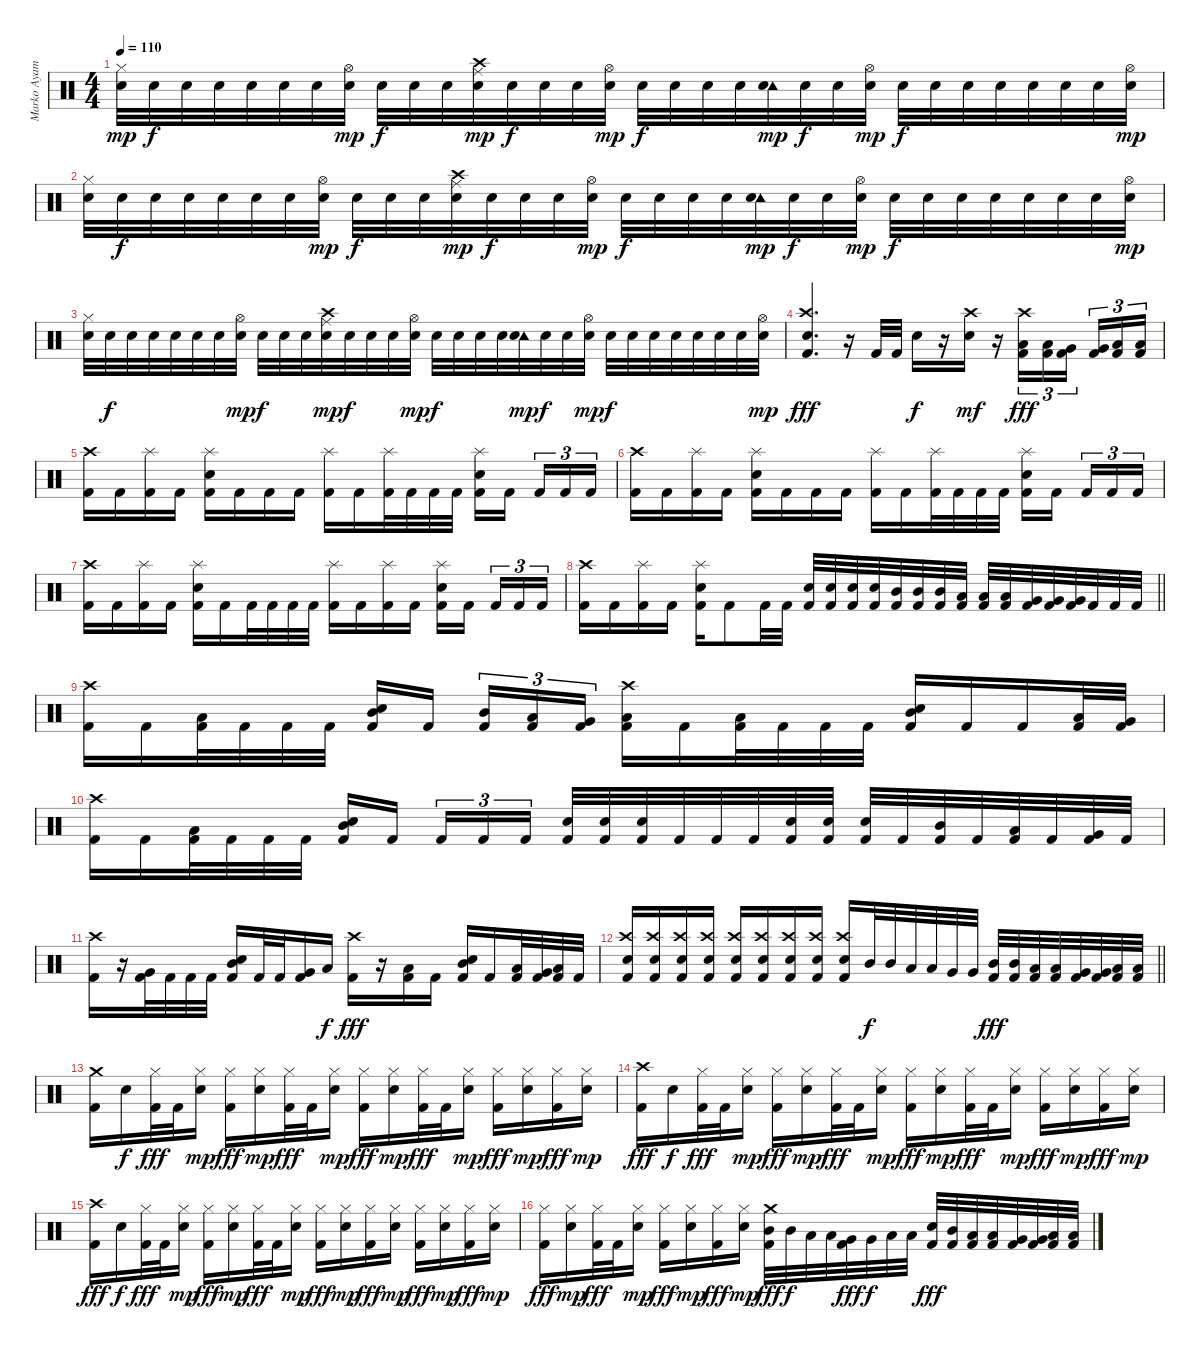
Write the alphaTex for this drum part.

\track ("Marko Ayamani" "Marko Ayam") {instrument percussion}
\staff {score}
\articulation defaults
\ts (4 4)
\tempo 110
\clef neutral
\ks c
("Hi-Hat (closed)" "Snare (hit) 2").32{dy mp} "Snare (hit) 2".32{dy f} "Snare (hit) 2".32 "Snare (hit) 2".32 "Snare (hit) 2".32 "Snare (hit) 2".32 "Snare (hit) 2".32 ("Hi-Hat (open)" "Snare (hit) 2").32{dy mp} "Snare (hit) 2".32{dy f} "Snare (hit) 2".32 "Snare (hit) 2".32 ("Ride (middle)" "Crash high (hit)" "Snare (hit) 2").32{dy mp} "Snare (hit) 2".32{dy f} "Snare (hit) 2".32 "Snare (hit) 2".32 ("Hi-Hat (open)" "Snare (hit) 2").32{dy mp} "Snare (hit) 2".32{dy f} "Snare (hit) 2".32 "Snare (hit) 2".32 "Snare (hit) 2".32 ("Tambourine (hit)" "Snare (hit) 2").32{dy mp} "Snare (hit) 2".32{dy f} "Snare (hit) 2".32 ("Hi-Hat (open)" "Snare (hit) 2").32{dy mp} "Snare (hit) 2".32{dy f} "Snare (hit) 2".32 "Snare (hit) 2".32 "Snare (hit) 2".32 "Snare (hit) 2".32 "Snare (hit) 2".32 "Snare (hit) 2".32 ("Hi-Hat (open)" "Snare (hit) 2").32{dy mp} |
("Hi-Hat (closed)" "Snare (hit) 2").32 "Snare (hit) 2".32{dy f} "Snare (hit) 2".32 "Snare (hit) 2".32 "Snare (hit) 2".32 "Snare (hit) 2".32 "Snare (hit) 2".32 ("Hi-Hat (open)" "Snare (hit) 2").32{dy mp} "Snare (hit) 2".32{dy f} "Snare (hit) 2".32 "Snare (hit) 2".32 ("Ride (middle)" "Crash high (hit)" "Snare (hit) 2").32{dy mp} "Snare (hit) 2".32{dy f} "Snare (hit) 2".32 "Snare (hit) 2".32 ("Hi-Hat (open)" "Snare (hit) 2").32{dy mp} "Snare (hit) 2".32{dy f} "Snare (hit) 2".32 "Snare (hit) 2".32 "Snare (hit) 2".32 ("Tambourine (hit)" "Snare (hit) 2").32{dy mp} "Snare (hit) 2".32{dy f} "Snare (hit) 2".32 ("Hi-Hat (open)" "Snare (hit) 2").32{dy mp} "Snare (hit) 2".32{dy f} "Snare (hit) 2".32 "Snare (hit) 2".32 "Snare (hit) 2".32 "Snare (hit) 2".32 "Snare (hit) 2".32 "Snare (hit) 2".32 ("Hi-Hat (open)" "Snare (hit) 2").32{dy mp} |
("Hi-Hat (closed)" "Snare (hit) 2").32 "Snare (hit) 2".32{dy f} "Snare (hit) 2".32 "Snare (hit) 2".32 "Snare (hit) 2".32 "Snare (hit) 2".32 "Snare (hit) 2".32 ("Hi-Hat (open)" "Snare (hit) 2").32{dy mp} "Snare (hit) 2".32{dy f} "Snare (hit) 2".32 "Snare (hit) 2".32 ("Ride (middle)" "Crash high (hit)" "Snare (hit) 2").32{dy mp} "Snare (hit) 2".32{dy f} "Snare (hit) 2".32 "Snare (hit) 2".32 ("Hi-Hat (open)" "Snare (hit) 2").32{dy mp} "Snare (hit) 2".32{dy f} "Snare (hit) 2".32 "Snare (hit) 2".32 "Snare (hit) 2".32 ("Tambourine (hit)" "Snare (hit) 2").32{dy mp} "Snare (hit) 2".32{dy f} "Snare (hit) 2".32 ("Hi-Hat (open)" "Snare (hit) 2").32{dy mp} "Snare (hit) 2".32{dy f} "Snare (hit) 2".32 "Snare (hit) 2".32 "Snare (hit) 2".32 "Snare (hit) 2".32 "Snare (hit) 2".32 "Snare (hit) 2".32 ("Hi-Hat (open)" "Snare (hit) 2").32{dy mp} |
("Crash high (hit)" "Snare (hit) 2" "Kick (hit) 2").4{d dy fff} r.16 "Kick (hit) 2".32 "Kick (hit) 2".32 "Snare (hit) 2".16{dy f} r.16 ("Crash high (hit)" "Snare (hit) 2").16{dy mf} r.16 ("Crash high (hit)" "Low Tom (hit)" "Kick (hit) 2").16{tu (3 2) dy fff} ("Low Tom (hit)" "Kick (hit) 2").16{tu (3 2)} ("Very Low Tom (hit)" "Kick (hit) 2").16{tu (3 2) beam splitsecondary} ("Very Low Tom (hit)" "Kick (hit) 2").16{tu (3 2)} ("Low Floor Tom (hit)" "Kick (hit) 2").16{tu (3 2)} ("Low Floor Tom (hit)" "Kick (hit) 2").16{tu (3 2)} |
("Crash high (hit)" "Kick (hit) 2").16 "Kick (hit) 2".16 ("Splash (hit)" "Kick (hit) 2").16 "Kick (hit) 2".16 ("Splash (hit)" "Snare (hit) 2" "Kick (hit) 2").16 "Kick (hit) 2".16 "Kick (hit) 2".16 "Kick (hit) 2".16 ("Splash (hit)" "Kick (hit) 2").16 "Kick (hit) 2".16 ("Splash (hit)" "Kick (hit) 2").32 "Kick (hit) 2".32 "Kick (hit) 2".32 "Kick (hit) 2".32 ("Splash (hit)" "Snare (hit) 2" "Kick (hit) 2").16 "Kick (hit) 2".16{beam splitsecondary} "Kick (hit) 2".16{tu (3 2)} "Kick (hit) 2".16{tu (3 2)} "Kick (hit) 2".16{tu (3 2)} |
("Crash high (hit)" "Kick (hit) 2").16 "Kick (hit) 2".16 ("Splash (hit)" "Kick (hit) 2").16 "Kick (hit) 2".16 ("Splash (hit)" "Snare (hit) 2" "Kick (hit) 2").16 "Kick (hit) 2".16 "Kick (hit) 2".16 "Kick (hit) 2".16 ("Splash (hit)" "Kick (hit) 2").16 "Kick (hit) 2".16 ("Splash (hit)" "Kick (hit) 2").32 "Kick (hit) 2".32 "Kick (hit) 2".32 "Kick (hit) 2".32 ("Splash (hit)" "Snare (hit) 2" "Kick (hit) 2").16 "Kick (hit) 2".16{beam splitsecondary} "Kick (hit) 2".16{tu (3 2)} "Kick (hit) 2".16{tu (3 2)} "Kick (hit) 2".16{tu (3 2)} |
("Crash high (hit)" "Kick (hit) 2").16 "Kick (hit) 2".16 ("Splash (hit)" "Kick (hit) 2").16 "Kick (hit) 2".16 ("Splash (hit)" "Snare (hit) 2" "Kick (hit) 2").16 "Kick (hit) 2".16 "Kick (hit) 2".32 "Kick (hit) 2".32 "Kick (hit) 2".32 "Kick (hit) 2".32 ("Splash (hit)" "Kick (hit) 2").16 "Kick (hit) 2".16 ("Splash (hit)" "Kick (hit) 2").16 "Kick (hit) 2".16 ("Splash (hit)" "Snare (hit) 2" "Kick (hit) 2").16 "Kick (hit) 2".16{beam splitsecondary} "Kick (hit) 2".16{tu (3 2)} "Kick (hit) 2".16{tu (3 2)} "Kick (hit) 2".16{tu (3 2)} |
\barLineRight lightlight
("Crash high (hit)" "Kick (hit) 2").16 "Kick (hit) 2".16 ("Splash (hit)" "Kick (hit) 2").16 "Kick (hit) 2".16 ("Splash (hit)" "Snare (hit) 2" "Kick (hit) 2").16 "Kick (hit) 2".8 "Kick (hit) 2".32 "Kick (hit) 2".32 ("Snare (hit) 2" "Kick (hit) 2").32 ("Snare (hit) 2" "Kick (hit) 2").32 ("Snare (hit) 2" "Kick (hit) 2").32 ("Snare (hit) 2" "Kick (hit) 2").32 ("Mid Tom (hit)" "Kick (hit) 2").32 ("Mid Tom (hit)" "Kick (hit) 2").32 ("Mid Tom (hit)" "Kick (hit) 2").32 ("Low Tom (hit)" "Kick (hit) 2").32 ("Low Tom (hit)" "Kick (hit) 2").32 ("Low Tom (hit)" "Kick (hit) 2").32 ("Very Low Tom (hit)" "Kick (hit) 2").32 ("Very Low Tom (hit)" "Kick (hit) 2").32 ("Very Low Tom (hit)" "Kick (hit) 2").32 "Kick (hit) 2".32 "Kick (hit) 2".32 "Kick (hit) 2".32 |
("Crash high (hit)" "Kick (hit) 2").16 "Kick (hit) 2".16 ("Low Tom (hit)" "Kick (hit) 2").32 "Kick (hit) 2".32 "Kick (hit) 2".32 "Kick (hit) 2".32 ("Mid Tom (hit)" "Snare (hit) 2" "Kick (hit) 2").16 "Kick (hit) 2".16{beam splitsecondary} ("Mid Tom (hit)" "Kick (hit) 2").16{tu (3 2)} ("Low Tom (hit)" "Kick (hit) 2").16{tu (3 2)} ("Very Low Tom (hit)" "Kick (hit) 2").16{tu (3 2)} ("Crash high (hit)" "Low Floor Tom (hit)" "Kick (hit) 2").16 "Kick (hit) 2".16 ("Low Tom (hit)" "Kick (hit) 2").32 "Kick (hit) 2".32 "Kick (hit) 2".32 "Kick (hit) 2".32 ("Mid Tom (hit)" "Snare (hit) 2" "Kick (hit) 2").16 "Kick (hit) 2".16 "Kick (hit) 2".16 ("Low Tom (hit)" "Kick (hit) 2").32 ("Very Low Tom (hit)" "Kick (hit) 2").32 |
("Crash high (hit)" "Kick (hit) 2").16 "Kick (hit) 2".16 ("Low Tom (hit)" "Kick (hit) 2").32 "Kick (hit) 2".32 "Kick (hit) 2".32 "Kick (hit) 2".32 ("Mid Tom (hit)" "Snare (hit) 2" "Kick (hit) 2").16 "Kick (hit) 2".16{beam splitsecondary} "Kick (hit) 2".16{tu (3 2)} "Kick (hit) 2".16{tu (3 2)} "Kick (hit) 2".16{tu (3 2)} ("Snare (hit) 2" "Kick (hit) 2").32 ("Snare (hit) 2" "Kick (hit) 2").32 ("Snare (hit) 2" "Kick (hit) 2").32 "Kick (hit) 2".32 "Kick (hit) 2".32 "Kick (hit) 2".32 ("Snare (hit) 2" "Kick (hit) 2").32 ("Snare (hit) 2" "Kick (hit) 2").32 ("Snare (hit) 2" "Kick (hit) 2").32 "Kick (hit) 2".32 ("Mid Tom (hit)" "Kick (hit) 2").32 "Kick (hit) 2".32 ("Low Tom (hit)" "Kick (hit) 2").32 "Kick (hit) 2".32 ("Very Low Tom (hit)" "Kick (hit) 2").32 "Kick (hit) 2".32 |
("Crash high (hit)" "Kick (hit) 2").16 r.16 ("Very Low Tom (hit)" "Kick (hit) 2").32 "Kick (hit) 2".32 "Kick (hit) 2".32 "Kick (hit) 2".32 ("Mid Tom (hit)" "Snare (hit) 2" "Kick (hit) 2").16 "Kick (hit) 2".32 "Kick (hit) 2".32 ("Very Low Tom (hit)" "Kick (hit) 2").16 "Low Floor Tom (hit)".16{dy f} ("Crash high (hit)" "Kick (hit) 2").16{dy fff} r.16 ("Low Tom (hit)" "Kick (hit) 2").16 "Kick (hit) 2".16 ("Mid Tom (hit)" "Snare (hit) 2" "Kick (hit) 2").16 "Kick (hit) 2".16 ("Low Tom (hit)" "Kick (hit) 2").32 ("Very Low Tom (hit)" "Kick (hit) 2").32 ("Low Floor Tom (hit)" "Kick (hit) 2").32 "Kick (hit) 2".32 |
\barLineRight lightlight
("Crash high (hit)" "Snare (hit) 2" "Kick (hit) 2").16 ("Crash high (hit)" "Snare (hit) 2" "Kick (hit) 2").16 ("Crash high (hit)" "Snare (hit) 2" "Kick (hit) 2").16 ("Crash high (hit)" "Snare (hit) 2" "Kick (hit) 2").16 ("Crash high (hit)" "Snare (hit) 2" "Kick (hit) 2").16 ("Crash high (hit)" "Snare (hit) 2" "Kick (hit) 2").16 ("Crash high (hit)" "Snare (hit) 2" "Kick (hit) 2").16 ("Crash high (hit)" "Snare (hit) 2" "Kick (hit) 2").16 ("Crash high (hit)" "Snare (hit) 2" "Kick (hit) 2").16 "Mid Tom (hit)".32{dy f} "Mid Tom (hit)".32 "Low Tom (hit)".32 "Low Tom (hit)".32 "Very Low Tom (hit)".32 "Very Low Tom (hit)".32 ("Mid Tom (hit)" "Kick (hit) 2").32{dy fff} ("Mid Tom (hit)" "Kick (hit) 2").32 ("Low Tom (hit)" "Kick (hit) 2").32 ("Low Tom (hit)" "Kick (hit) 2").32 ("Very Low Tom (hit)" "Kick (hit) 2").32 ("Very Low Tom (hit)" "Kick (hit) 2").32 ("Low Floor Tom (hit)" "Kick (hit) 2").32 ("Low Floor Tom (hit)" "Kick (hit) 2").32 |
("Crash medium (hit)" "Kick (hit) 2").16 "Snare (hit) 2".16{dy f} ("Hi-Hat (closed)" "Kick (hit) 2").32{dy fff} "Kick (hit) 2".32 ("Hi-Hat (closed)" "Snare (hit) 2").16{dy mp} ("Hi-Hat (closed)" "Kick (hit) 2").16{dy fff} ("Hi-Hat (closed)" "Snare (hit) 2").16{dy mp} ("Hi-Hat (closed)" "Kick (hit) 2").32{dy fff} "Kick (hit) 2".32 ("Hi-Hat (closed)" "Snare (hit) 2").16{dy mp} ("Hi-Hat (closed)" "Kick (hit) 2").16{dy fff} ("Hi-Hat (closed)" "Snare (hit) 2").16{dy mp} ("Hi-Hat (closed)" "Kick (hit) 2").32{dy fff} "Kick (hit) 2".32 ("Hi-Hat (closed)" "Snare (hit) 2").16{dy mp} ("Hi-Hat (closed)" "Kick (hit) 2").16{dy fff} ("Hi-Hat (closed)" "Snare (hit) 2").16{dy mp} ("Hi-Hat (closed)" "Kick (hit) 2").16{dy fff} ("Hi-Hat (closed)" "Snare (hit) 2").16{dy mp} |
("Crash high (hit)" "Kick (hit) 2").16{dy fff} "Snare (hit) 2".16{dy f} ("Hi-Hat (closed)" "Kick (hit) 2").32{dy fff} "Kick (hit) 2".32 ("Hi-Hat (closed)" "Snare (hit) 2").16{dy mp} ("Hi-Hat (closed)" "Kick (hit) 2").16{dy fff} ("Hi-Hat (closed)" "Snare (hit) 2").16{dy mp} ("Hi-Hat (closed)" "Kick (hit) 2").32{dy fff} "Kick (hit) 2".32 ("Hi-Hat (closed)" "Snare (hit) 2").16{dy mp} ("Hi-Hat (closed)" "Kick (hit) 2").16{dy fff} ("Hi-Hat (closed)" "Snare (hit) 2").16{dy mp} ("Hi-Hat (closed)" "Kick (hit) 2").32{dy fff} "Kick (hit) 2".32 ("Hi-Hat (closed)" "Snare (hit) 2").16{dy mp} ("Hi-Hat (closed)" "Kick (hit) 2").16{dy fff} ("Hi-Hat (closed)" "Snare (hit) 2").16{dy mp} ("Hi-Hat (closed)" "Kick (hit) 2").16{dy fff} ("Hi-Hat (closed)" "Snare (hit) 2").16{dy mp} |
("Crash high (hit)" "Kick (hit) 2").16{dy fff} "Snare (hit) 2".16{dy f} ("Hi-Hat (closed)" "Kick (hit) 2").32{dy fff} "Kick (hit) 2".32 ("Hi-Hat (closed)" "Snare (hit) 2").16{dy mp} ("Hi-Hat (closed)" "Kick (hit) 2").16{dy fff} ("Hi-Hat (closed)" "Snare (hit) 2").16{dy mp} ("Hi-Hat (closed)" "Kick (hit) 2").32{dy fff} "Kick (hit) 2".32 ("Hi-Hat (closed)" "Snare (hit) 2").16{dy mp} ("Hi-Hat (closed)" "Kick (hit) 2").16{dy fff} ("Hi-Hat (closed)" "Snare (hit) 2").16{dy mp} ("Hi-Hat (closed)" "Kick (hit) 2").16{dy fff} ("Hi-Hat (closed)" "Snare (hit) 2").16{dy mp} ("Hi-Hat (closed)" "Kick (hit) 2").16{dy fff} ("Hi-Hat (closed)" "Snare (hit) 2").16{dy mp} ("Hi-Hat (closed)" "Kick (hit) 2").16{dy fff} ("Hi-Hat (closed)" "Snare (hit) 2").16{dy mp} |
("Hi-Hat (closed)" "Kick (hit) 2").16{dy fff} ("Hi-Hat (closed)" "Snare (hit) 2").16{dy mp} ("Hi-Hat (closed)" "Kick (hit) 2").32{dy fff} "Kick (hit) 2".32 ("Hi-Hat (closed)" "Snare (hit) 2").16{dy mp} ("Hi-Hat (closed)" "Kick (hit) 2").16{dy fff} ("Hi-Hat (closed)" "Snare (hit) 2").16{dy mp} ("Hi-Hat (closed)" "Kick (hit) 2").16{dy fff} ("Hi-Hat (closed)" "Snare (hit) 2").16{dy mp} ("Crash medium (hit)" "Mid Tom (hit)" "Kick (hit) 2").32{dy fff} "Mid Tom (hit)".32{dy f} "Low Tom (hit)".32 "Low Tom (hit)".32 ("Very Low Tom (hit)" "Kick (hit) 2").32{dy fff} "Very Low Tom (hit)".32{dy f} "Low Floor Tom (hit)".32 "Low Floor Tom (hit)".32 ("Snare (hit) 2" "Kick (hit) 2").32{dy fff} ("Mid Tom (hit)" "Kick (hit) 2").32 ("Low Tom (hit)" "Kick (hit) 2").32 ("Low Tom (hit)" "Kick (hit) 2").32 ("Very Low Tom (hit)" "Kick (hit) 2").32 ("Very Low Tom (hit)" "Kick (hit) 2").32 ("Low Floor Tom (hit)" "Kick (hit) 2").32 ("Low Floor Tom (hit)" "Kick (hit) 2").32
